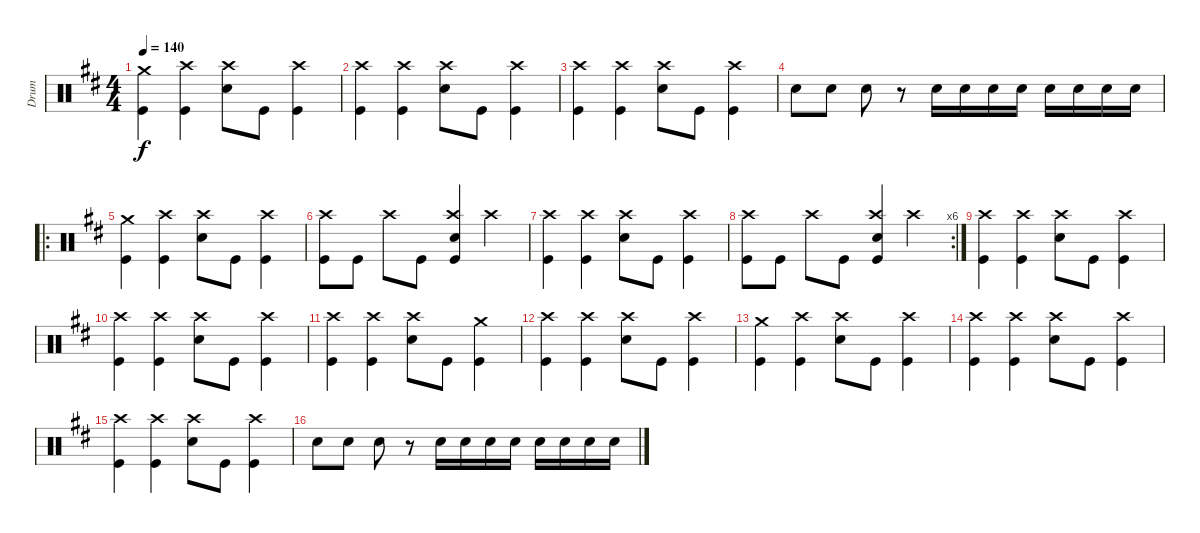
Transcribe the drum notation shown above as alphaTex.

\track ("Drum" "Drum") {instrument percussion}
\staff {score}
\articulation defaults
\ts (4 4)
\tempo 140
\clef neutral
\ks d
("Crash medium (hit)" "Kick (hit)").4{dy f} ("Crash high (hit)" "Kick (hit)").4 ("Crash high (hit)" "Snare (hit) 2").8 "Kick (hit)".8 ("Crash high (hit)" "Kick (hit)").4 |
("Crash high (hit)" "Kick (hit)").4 ("Crash high (hit)" "Kick (hit)").4 ("Crash high (hit)" "Snare (hit) 2").8 "Kick (hit)".8 ("Crash high (hit)" "Kick (hit)").4 |
("Crash high (hit)" "Kick (hit)").4 ("Crash high (hit)" "Kick (hit)").4 ("Crash high (hit)" "Snare (hit) 2").8 "Kick (hit)".8 ("Crash high (hit)" "Kick (hit)").4 |
"Snare (hit) 2".8 "Snare (hit) 2".8 "Snare (hit) 2".8 r.8 "Snare (hit) 2".16 "Snare (hit) 2".16 "Snare (hit) 2".16 "Snare (hit) 2".16 "Snare (hit) 2".16 "Snare (hit) 2".16 "Snare (hit) 2".16 "Snare (hit) 2".16 |
\ro
("Crash medium (hit)" "Kick (hit)").4 ("Crash high (hit)" "Kick (hit)").4 ("Crash high (hit)" "Snare (hit) 2").8 "Kick (hit)".8 ("Crash high (hit)" "Kick (hit)").4 |
("Crash high (hit)" "Kick (hit)").8 "Kick (hit)".8 "Crash high (hit)".8 "Kick (hit)".8 ("Crash high (hit)" "Snare (hit) 2" "Kick (hit)").4 "Crash high (hit)".4 |
("Crash high (hit)" "Kick (hit)").4 ("Crash high (hit)" "Kick (hit)").4 ("Crash high (hit)" "Snare (hit) 2").8 "Kick (hit)".8 ("Crash high (hit)" "Kick (hit)").4 |
\rc 6
("Crash high (hit)" "Kick (hit)").8 "Kick (hit)".8 "Crash high (hit)".8 "Kick (hit)".8 ("Crash high (hit)" "Snare (hit) 2" "Kick (hit)").4 "Crash high (hit)".4 |
("Crash high (hit)" "Kick (hit)").4 ("Crash high (hit)" "Kick (hit)").4 ("Crash high (hit)" "Snare (hit) 2").8 "Kick (hit)".8 ("Crash high (hit)" "Kick (hit)").4 |
("Crash high (hit)" "Kick (hit)").4 ("Crash high (hit)" "Kick (hit)").4 ("Crash high (hit)" "Snare (hit) 2").8 "Kick (hit)".8 ("Crash high (hit)" "Kick (hit)").4 |
("Crash high (hit)" "Kick (hit)").4 ("Crash high (hit)" "Kick (hit)").4 ("Crash high (hit)" "Snare (hit) 2").8 "Kick (hit)".8 ("Crash medium (hit)" "Kick (hit)").4 |
("Crash high (hit)" "Kick (hit)").4 ("Crash high (hit)" "Kick (hit)").4 ("Crash high (hit)" "Snare (hit) 2").8 "Kick (hit)".8 ("Crash high (hit)" "Kick (hit)").4 |
("Crash medium (hit)" "Kick (hit)").4 ("Crash high (hit)" "Kick (hit)").4 ("Crash high (hit)" "Snare (hit) 2").8 "Kick (hit)".8 ("Crash high (hit)" "Kick (hit)").4 |
("Crash high (hit)" "Kick (hit)").4 ("Crash high (hit)" "Kick (hit)").4 ("Crash high (hit)" "Snare (hit) 2").8 "Kick (hit)".8 ("Crash high (hit)" "Kick (hit)").4 |
("Crash high (hit)" "Kick (hit)").4 ("Crash high (hit)" "Kick (hit)").4 ("Crash high (hit)" "Snare (hit) 2").8 "Kick (hit)".8 ("Crash high (hit)" "Kick (hit)").4 |
"Snare (hit) 2".8 "Snare (hit) 2".8 "Snare (hit) 2".8 r.8 "Snare (hit) 2".16 "Snare (hit) 2".16 "Snare (hit) 2".16 "Snare (hit) 2".16 "Snare (hit) 2".16 "Snare (hit) 2".16 "Snare (hit) 2".16 "Snare (hit) 2".16
